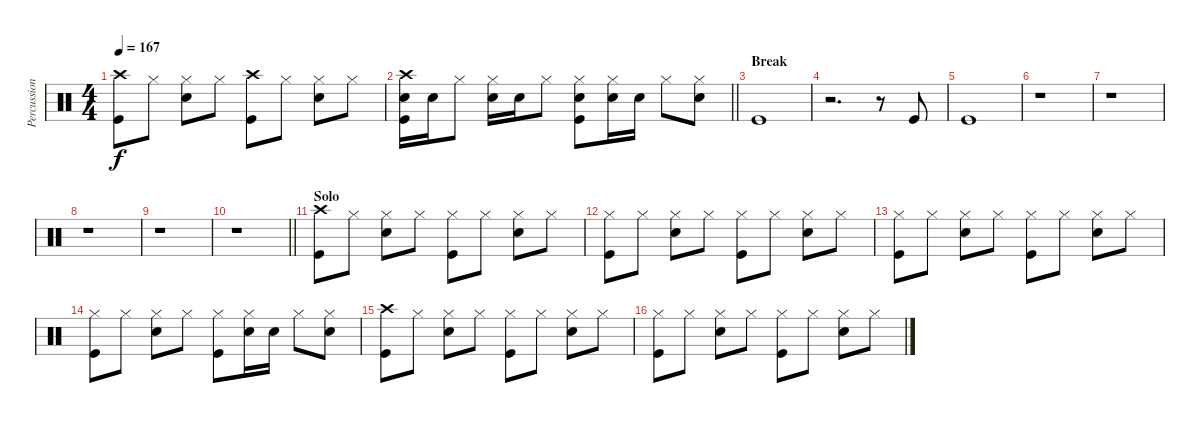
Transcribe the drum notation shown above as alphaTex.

\track ("Percussion" "Percussion") {instrument percussion}
\staff {score}
\articulation defaults
\ts (4 4)
\tempo 167
\clef neutral
\ks c
("Crash high (hit)" "Kick (hit)").8{dy f} "Hi-Hat (closed)".8 ("Hi-Hat (closed)" "Electric Snare (hit)").8 "Hi-Hat (closed)".8 ("Crash high (hit)" "Kick (hit)").8 "Hi-Hat (closed)".8 ("Hi-Hat (closed)" "Electric Snare (hit)").8 "Hi-Hat (closed)".8 |
\barLineRight lightlight
("Crash high (hit)" "Electric Snare (hit)" "Kick (hit)").16 "Electric Snare (hit)".16 "Hi-Hat (closed)".8 ("Hi-Hat (closed)" "Electric Snare (hit)").16 "Electric Snare (hit)".16 "Hi-Hat (closed)".8 ("Hi-Hat (closed)" "Electric Snare (hit)" "Kick (hit)").8 ("Hi-Hat (closed)" "Electric Snare (hit)").16 "Electric Snare (hit)".16 "Hi-Hat (closed)".8 ("Hi-Hat (closed)" "Electric Snare (hit)").8 |
\section ("" "Break")
"Kick (hit)".1 |
r.2{d} r.8 "Kick (hit)".8 |
"Kick (hit)".1 |
r.1 |
r.1 |
r.1 |
r.1 |
\barLineRight lightlight
r.1 |
\section ("" "Solo")
("Crash high (hit)" "Kick (hit)").8 "Hi-Hat (closed)".8 ("Hi-Hat (closed)" "Electric Snare (hit)").8 "Hi-Hat (closed)".8 ("Hi-Hat (closed)" "Kick (hit)").8 "Hi-Hat (closed)".8 ("Hi-Hat (closed)" "Electric Snare (hit)").8 "Hi-Hat (closed)".8 |
("Hi-Hat (closed)" "Kick (hit)").8 "Hi-Hat (closed)".8 ("Hi-Hat (closed)" "Electric Snare (hit)").8 "Hi-Hat (closed)".8 ("Hi-Hat (closed)" "Kick (hit)").8 "Hi-Hat (closed)".8 ("Hi-Hat (closed)" "Electric Snare (hit)").8 "Hi-Hat (closed)".8 |
("Hi-Hat (closed)" "Kick (hit)").8 "Hi-Hat (closed)".8 ("Hi-Hat (closed)" "Electric Snare (hit)").8 "Hi-Hat (closed)".8 ("Hi-Hat (closed)" "Kick (hit)").8 "Hi-Hat (closed)".8 ("Hi-Hat (closed)" "Electric Snare (hit)").8 "Hi-Hat (closed)".8 |
("Hi-Hat (closed)" "Kick (hit)").8 "Hi-Hat (closed)".8 ("Hi-Hat (closed)" "Electric Snare (hit)").8 "Hi-Hat (closed)".8 ("Hi-Hat (closed)" "Kick (hit)").8 ("Hi-Hat (closed)" "Electric Snare (hit)").16 "Electric Snare (hit)".16 "Hi-Hat (closed)".8 ("Hi-Hat (closed)" "Electric Snare (hit)").8 |
("Crash high (hit)" "Kick (hit)").8 "Hi-Hat (closed)".8 ("Hi-Hat (closed)" "Electric Snare (hit)").8 "Hi-Hat (closed)".8 ("Hi-Hat (closed)" "Kick (hit)").8 "Hi-Hat (closed)".8 ("Hi-Hat (closed)" "Electric Snare (hit)").8 "Hi-Hat (closed)".8 |
("Hi-Hat (closed)" "Kick (hit)").8 "Hi-Hat (closed)".8 ("Hi-Hat (closed)" "Electric Snare (hit)").8 "Hi-Hat (closed)".8 ("Hi-Hat (closed)" "Kick (hit)").8 "Hi-Hat (closed)".8 ("Hi-Hat (closed)" "Electric Snare (hit)").8 "Hi-Hat (closed)".8
